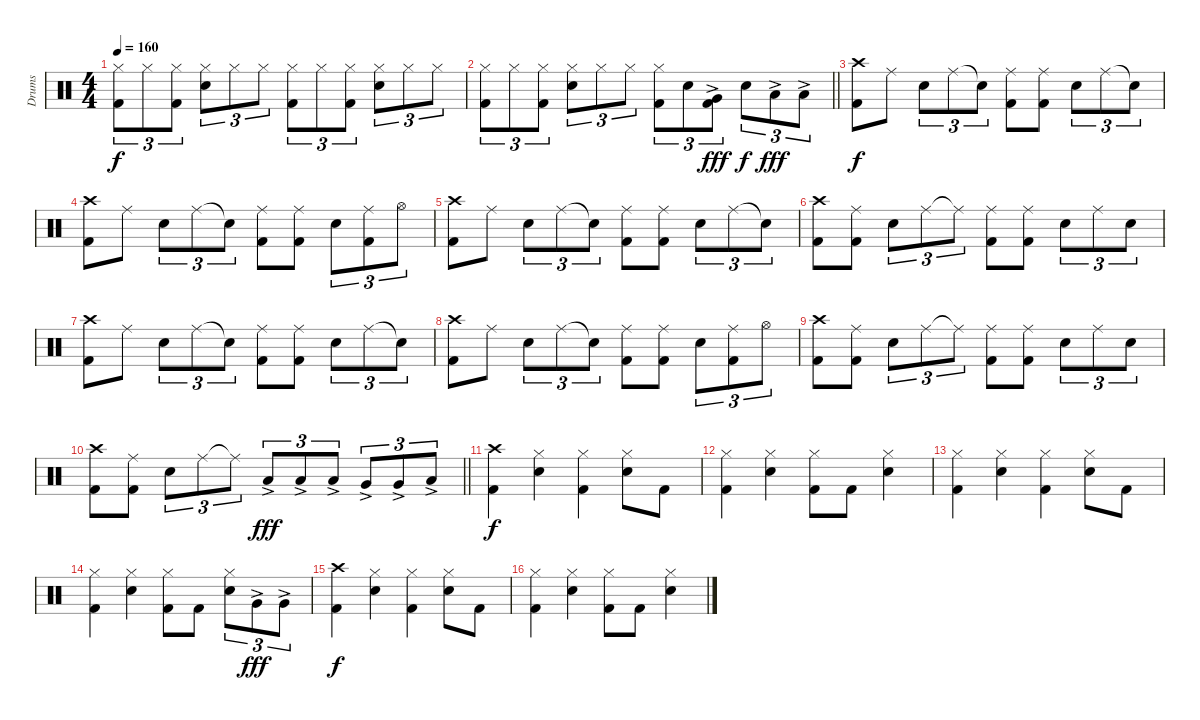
\track ("Drums" "Drums") {instrument percussion}
\staff {score}
\articulation defaults
\ts (4 4)
\tempo 160
\clef neutral
\ks c
("Hi-Hat (closed)" "Kick (hit) 2").8{tu (3 2) dy f} "Hi-Hat (closed)".8{tu (3 2)} ("Hi-Hat (closed)" "Kick (hit) 2").8{tu (3 2)} ("Hi-Hat (closed)" "Snare (hit) 2").8{tu (3 2)} "Hi-Hat (closed)".8{tu (3 2)} "Hi-Hat (closed)".8{tu (3 2)} ("Hi-Hat (closed)" "Kick (hit) 2").8{tu (3 2)} "Hi-Hat (closed)".8{tu (3 2)} ("Hi-Hat (closed)" "Kick (hit) 2").8{tu (3 2)} ("Hi-Hat (closed)" "Snare (hit) 2").8{tu (3 2)} "Hi-Hat (closed)".8{tu (3 2)} "Hi-Hat (closed)".8{tu (3 2)} |
\barLineRight lightlight
("Hi-Hat (closed)" "Kick (hit) 2").8{tu (3 2)} "Hi-Hat (closed)".8{tu (3 2)} ("Hi-Hat (closed)" "Kick (hit) 2").8{tu (3 2)} ("Hi-Hat (closed)" "Snare (hit) 2").8{tu (3 2)} "Hi-Hat (closed)".8{tu (3 2)} "Hi-Hat (closed)".8{tu (3 2)} ("Hi-Hat (closed)" "Kick (hit) 2").8{tu (3 2)} "Snare (hit) 2".8{tu (3 2)} ("Very Low Tom (hit)"{ac} "Kick (hit) 2").8{tu (3 2) dy fff} "Snare (hit) 2".8{tu (3 2) dy f} "Low Tom (hit)"{ac}.8{tu (3 2) dy fff} "Low Tom (hit)"{ac}.8{tu (3 2)} |
("Crash high (hit)" "Kick (hit) 2").8{dy f} "Ride (middle)".8 "Snare (hit) 2".8{tu (3 2)} "Ride (middle)".8{tu (3 2)} "Snare (hit)"{t}.8{tu (3 2)} ("Ride (middle)" "Kick (hit) 2").8 ("Ride (middle)" "Kick (hit) 2").8 "Snare (hit) 2".8{tu (3 2)} "Ride (middle)".8{tu (3 2)} "Snare (hit)"{t}.8{tu (3 2)} |
("Crash high (hit)" "Kick (hit) 2").8 "Ride (middle)".8 "Snare (hit) 2".8{tu (3 2)} "Ride (middle)".8{tu (3 2)} "Snare (hit)"{t}.8{tu (3 2)} ("Ride (middle)" "Kick (hit) 2").8 ("Ride (middle)" "Kick (hit) 2").8 "Snare (hit) 2".8{tu (3 2)} ("Ride (middle)" "Kick (hit) 2").8{tu (3 2)} "Hi-Hat (open)".8{tu (3 2)} |
("Crash high (hit)" "Kick (hit) 2").8 "Ride (middle)".8 "Snare (hit) 2".8{tu (3 2)} "Ride (middle)".8{tu (3 2)} "Snare (hit)"{t}.8{tu (3 2)} ("Ride (middle)" "Kick (hit) 2").8 ("Ride (middle)" "Kick (hit) 2").8 "Snare (hit) 2".8{tu (3 2)} "Ride (middle)".8{tu (3 2)} "Snare (hit)"{t}.8{tu (3 2)} |
("Crash high (hit)" "Kick (hit) 2").8 ("Ride (middle)" "Kick (hit) 2").8 "Snare (hit) 2".8{tu (3 2)} "Ride (middle)".8{tu (3 2)} "Ride (middle)"{t}.8{tu (3 2)} ("Ride (middle)" "Kick (hit) 2").8 ("Ride (middle)" "Kick (hit) 2").8 "Snare (hit) 2".8{tu (3 2)} "Ride (middle)".8{tu (3 2)} "Snare (hit) 2".8{tu (3 2)} |
("Crash high (hit)" "Kick (hit) 2").8 "Ride (middle)".8 "Snare (hit) 2".8{tu (3 2)} "Ride (middle)".8{tu (3 2)} "Snare (hit)"{t}.8{tu (3 2)} ("Ride (middle)" "Kick (hit) 2").8 ("Ride (middle)" "Kick (hit) 2").8 "Snare (hit) 2".8{tu (3 2)} "Ride (middle)".8{tu (3 2)} "Snare (hit)"{t}.8{tu (3 2)} |
("Crash high (hit)" "Kick (hit) 2").8 "Ride (middle)".8 "Snare (hit) 2".8{tu (3 2)} "Ride (middle)".8{tu (3 2)} "Snare (hit)"{t}.8{tu (3 2)} ("Ride (middle)" "Kick (hit) 2").8 ("Ride (middle)" "Kick (hit) 2").8 "Snare (hit) 2".8{tu (3 2)} ("Ride (middle)" "Kick (hit) 2").8{tu (3 2)} "Hi-Hat (open)".8{tu (3 2)} |
("Crash high (hit)" "Kick (hit) 2").8 ("Ride (middle)" "Kick (hit) 2").8 "Snare (hit) 2".8{tu (3 2)} "Ride (middle)".8{tu (3 2)} "Ride (middle)"{t}.8{tu (3 2)} ("Ride (middle)" "Kick (hit) 2").8 ("Ride (middle)" "Kick (hit) 2").8 "Snare (hit) 2".8{tu (3 2)} "Ride (middle)".8{tu (3 2)} "Snare (hit) 2".8{tu (3 2)} |
\barLineRight lightlight
("Crash high (hit)" "Kick (hit) 2").8 ("Ride (middle)" "Kick (hit) 2").8 "Snare (hit) 2".8{tu (3 2)} "Ride (middle)".8{tu (3 2)} "Ride (middle)"{t}.8{tu (3 2)} "Low Tom (hit)"{ac}.8{tu (3 2) dy fff} "Low Tom (hit)"{ac}.8{tu (3 2)} "Low Tom (hit)"{ac}.8{tu (3 2)} "Very Low Tom (hit)"{ac}.8{tu (3 2)} "Very Low Tom (hit)"{ac}.8{tu (3 2)} "Low Floor Tom (hit)"{ac}.8{tu (3 2)} |
("Crash high (hit)" "Kick (hit) 2").4{dy f} ("Hi-Hat (closed)" "Snare (hit) 2").4 ("Hi-Hat (closed)" "Kick (hit) 2").4 ("Hi-Hat (closed)" "Snare (hit) 2").8 "Kick (hit) 2".8 |
("Hi-Hat (closed)" "Kick (hit) 2").4 ("Hi-Hat (closed)" "Snare (hit) 2").4 ("Hi-Hat (closed)" "Kick (hit) 2").8 "Kick (hit) 2".8 ("Hi-Hat (closed)" "Snare (hit) 2").4 |
("Hi-Hat (closed)" "Kick (hit) 2").4 ("Hi-Hat (closed)" "Snare (hit) 2").4 ("Hi-Hat (closed)" "Kick (hit) 2").4 ("Hi-Hat (closed)" "Snare (hit) 2").8 "Kick (hit) 2".8 |
("Hi-Hat (closed)" "Kick (hit) 2").4 ("Hi-Hat (closed)" "Snare (hit) 2").4 ("Hi-Hat (closed)" "Kick (hit) 2").8 "Kick (hit) 2".8 ("Hi-Hat (closed)" "Snare (hit) 2").8{tu (3 2)} "Very Low Tom (hit)"{ac}.8{tu (3 2) dy fff} "Very Low Tom (hit)"{ac}.8{tu (3 2)} |
("Crash high (hit)" "Kick (hit) 2").4{dy f} ("Hi-Hat (closed)" "Snare (hit) 2").4 ("Hi-Hat (closed)" "Kick (hit) 2").4 ("Hi-Hat (closed)" "Snare (hit) 2").8 "Kick (hit) 2".8 |
("Hi-Hat (closed)" "Kick (hit) 2").4 ("Hi-Hat (closed)" "Snare (hit) 2").4 ("Hi-Hat (closed)" "Kick (hit) 2").8 "Kick (hit) 2".8 ("Hi-Hat (closed)" "Snare (hit) 2").4
